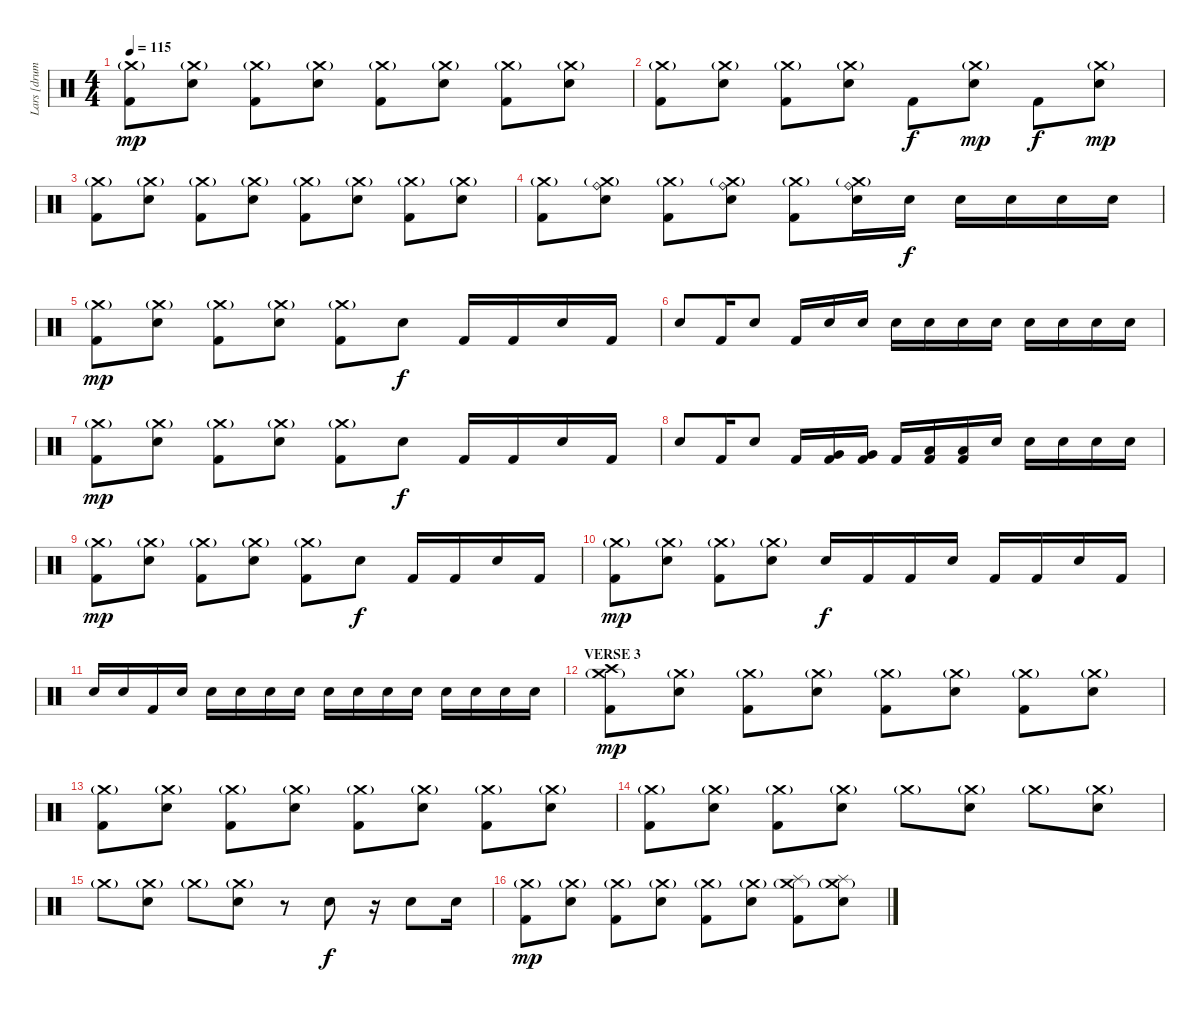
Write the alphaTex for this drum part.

\track ("Lars [drums]" "Lars [drum") {instrument percussion}
\staff {score}
\articulation defaults
\ts (4 4)
\tempo 115
\clef neutral
\ks c
("Kick (hit) 2" "Crash medium (hit)"{g}).8{dy mp} ("Snare (hit) 2" "Crash medium (hit)"{g}).8 ("Kick (hit) 2" "Crash medium (hit)"{g}).8 ("Snare (hit) 2" "Crash medium (hit)"{g}).8 ("Kick (hit) 2" "Crash medium (hit)"{g}).8 ("Snare (hit) 2" "Crash medium (hit)"{g}).8 ("Kick (hit) 2" "Crash medium (hit)"{g}).8 ("Snare (hit) 2" "Crash medium (hit)"{g}).8 |
("Kick (hit) 2" "Crash medium (hit)"{g}).8 ("Snare (hit) 2" "Crash medium (hit)"{g}).8 ("Kick (hit) 2" "Crash medium (hit)"{g}).8 ("Snare (hit) 2" "Crash medium (hit)"{g}).8 "Kick (hit) 2".8{dy f} ("Snare (hit) 2" "Crash medium (hit)"{g}).8{dy mp} "Kick (hit) 2".8{dy f} ("Snare (hit) 2" "Crash medium (hit)"{g}).8{dy mp} |
("Kick (hit) 2" "Crash medium (hit)"{g}).8 ("Snare (hit) 2" "Crash medium (hit)"{g}).8 ("Kick (hit) 2" "Crash medium (hit)"{g}).8 ("Snare (hit) 2" "Crash medium (hit)"{g}).8 ("Kick (hit) 2" "Crash medium (hit)"{g}).8 ("Snare (hit) 2" "Crash medium (hit)"{g}).8 ("Kick (hit) 2" "Crash medium (hit)"{g}).8 ("Snare (hit) 2" "Crash medium (hit)"{g}).8 |
("Kick (hit) 2" "Crash medium (hit)"{g}).8 ("Snare (hit) 2" "Ride (bell)" "Crash medium (hit)"{g}).8 ("Kick (hit) 2" "Crash medium (hit)"{g}).8 ("Snare (hit) 2" "Ride (bell)" "Crash medium (hit)"{g}).8 ("Kick (hit) 2" "Crash medium (hit)"{g}).8 ("Snare (hit) 2" "Ride (bell)" "Crash medium (hit)"{g}).16 "Snare (hit) 2".16{dy f} "Snare (hit) 2".16 "Snare (hit) 2".16 "Snare (hit) 2".16 "Snare (hit) 2".16 |
("Kick (hit) 2" "Crash medium (hit)"{g}).8{dy mp} ("Snare (hit) 2" "Crash medium (hit)"{g}).8 ("Kick (hit) 2" "Crash medium (hit)"{g}).8 ("Snare (hit) 2" "Crash medium (hit)"{g}).8 ("Kick (hit) 2" "Crash medium (hit)"{g}).8 "Snare (hit) 2".8{dy f} "Kick (hit) 2".16 "Kick (hit) 2".16 "Snare (hit) 2".16 "Kick (hit) 2".16 |
"Snare (hit) 2".8 "Kick (hit) 2".16 "Snare (hit) 2".8 "Kick (hit) 2".16 "Snare (hit) 2".16 "Snare (hit) 2".16 "Snare (hit) 2".16 "Snare (hit) 2".16 "Snare (hit) 2".16 "Snare (hit) 2".16 "Snare (hit) 2".16 "Snare (hit) 2".16 "Snare (hit) 2".16 "Snare (hit) 2".16 |
("Kick (hit) 2" "Crash medium (hit)"{g}).8{dy mp} ("Snare (hit) 2" "Crash medium (hit)"{g}).8 ("Kick (hit) 2" "Crash medium (hit)"{g}).8 ("Snare (hit) 2" "Crash medium (hit)"{g}).8 ("Kick (hit) 2" "Crash medium (hit)"{g}).8 "Snare (hit) 2".8{dy f} "Kick (hit) 2".16 "Kick (hit) 2".16 "Snare (hit) 2".16 "Kick (hit) 2".16 |
"Snare (hit) 2".8 "Kick (hit) 2".16 "Snare (hit) 2".8 "Kick (hit) 2".16 ("Kick (hit) 2" "Very Low Tom (hit)").16 ("Kick (hit) 2" "Very Low Tom (hit)").16 "Kick (hit) 2".16 ("Kick (hit) 2" "Low Floor Tom (hit)").16 ("Kick (hit) 2" "Low Floor Tom (hit)").16 "Snare (hit) 2".16 "Snare (hit) 2".16 "Snare (hit) 2".16 "Snare (hit) 2".16 "Snare (hit) 2".16 |
("Kick (hit) 2" "Crash medium (hit)"{g}).8{dy mp} ("Snare (hit) 2" "Crash medium (hit)"{g}).8 ("Kick (hit) 2" "Crash medium (hit)"{g}).8 ("Snare (hit) 2" "Crash medium (hit)"{g}).8 ("Kick (hit) 2" "Crash medium (hit)"{g}).8 "Snare (hit) 2".8{dy f} "Kick (hit) 2".16 "Kick (hit) 2".16 "Snare (hit) 2".16 "Kick (hit) 2".16 |
("Kick (hit) 2" "Crash medium (hit)"{g}).8{dy mp} ("Snare (hit) 2" "Crash medium (hit)"{g}).8 ("Kick (hit) 2" "Crash medium (hit)"{g}).8 ("Snare (hit) 2" "Crash medium (hit)"{g}).8 "Snare (hit) 2".16{dy f} "Kick (hit) 2".16 "Kick (hit) 2".16 "Snare (hit) 2".16 "Kick (hit) 2".16 "Kick (hit) 2".16 "Snare (hit) 2".16 "Kick (hit) 2".16 |
"Snare (hit) 2".16 "Snare (hit) 2".16 "Kick (hit) 2".16 "Snare (hit) 2".16 "Snare (hit) 2".16 "Snare (hit) 2".16 "Snare (hit) 2".16 "Snare (hit) 2".16 "Snare (hit) 2".16 "Snare (hit) 2".16 "Snare (hit) 2".16 "Snare (hit) 2".16 "Snare (hit) 2".16 "Snare (hit) 2".16 "Snare (hit) 2".16 "Snare (hit) 2".16 |
\section ("" "VERSE 3")
("Kick (hit) 2" "Crash high (hit)" "Crash medium (hit)"{g}).8{dy mp} ("Snare (hit) 2" "Crash medium (hit)"{g}).8 ("Kick (hit) 2" "Crash medium (hit)"{g}).8 ("Snare (hit) 2" "Crash medium (hit)"{g}).8 ("Kick (hit) 2" "Crash medium (hit)"{g}).8 ("Snare (hit) 2" "Crash medium (hit)"{g}).8 ("Kick (hit) 2" "Crash medium (hit)"{g}).8 ("Snare (hit) 2" "Crash medium (hit)"{g}).8 |
("Kick (hit) 2" "Crash medium (hit)"{g}).8 ("Snare (hit) 2" "Crash medium (hit)"{g}).8 ("Kick (hit) 2" "Crash medium (hit)"{g}).8 ("Snare (hit) 2" "Crash medium (hit)"{g}).8 ("Kick (hit) 2" "Crash medium (hit)"{g}).8 ("Snare (hit) 2" "Crash medium (hit)"{g}).8 ("Kick (hit) 2" "Crash medium (hit)"{g}).8 ("Snare (hit) 2" "Crash medium (hit)"{g}).8 |
("Kick (hit) 2" "Crash medium (hit)"{g}).8 ("Snare (hit) 2" "Crash medium (hit)"{g}).8 ("Kick (hit) 2" "Crash medium (hit)"{g}).8 ("Snare (hit) 2" "Crash medium (hit)"{g}).8 "Crash medium (hit)"{g}.8 ("Snare (hit) 2" "Crash medium (hit)"{g}).8 "Crash medium (hit)"{g}.8 ("Snare (hit) 2" "Crash medium (hit)"{g}).8 |
"Crash medium (hit)"{g}.8 ("Snare (hit) 2" "Crash medium (hit)"{g}).8 "Crash medium (hit)"{g}.8 ("Snare (hit) 2" "Crash medium (hit)"{g}).8 r.8 "Snare (hit) 2".8{dy f} r.16 "Snare (hit) 2".8 "Snare (hit) 2".16 |
("Kick (hit) 2" "Crash medium (hit)"{g}).8{dy mp} ("Snare (hit) 2" "Crash medium (hit)"{g}).8 ("Kick (hit) 2" "Crash medium (hit)"{g}).8 ("Snare (hit) 2" "Crash medium (hit)"{g}).8 ("Kick (hit) 2" "Crash medium (hit)"{g}).8 ("Snare (hit) 2" "Crash medium (hit)"{g}).8 ("Kick (hit) 2" "Splash (hit)" "Crash medium (hit)"{g}).8 ("Snare (hit) 2" "Splash (hit)" "Crash medium (hit)"{g}).8
